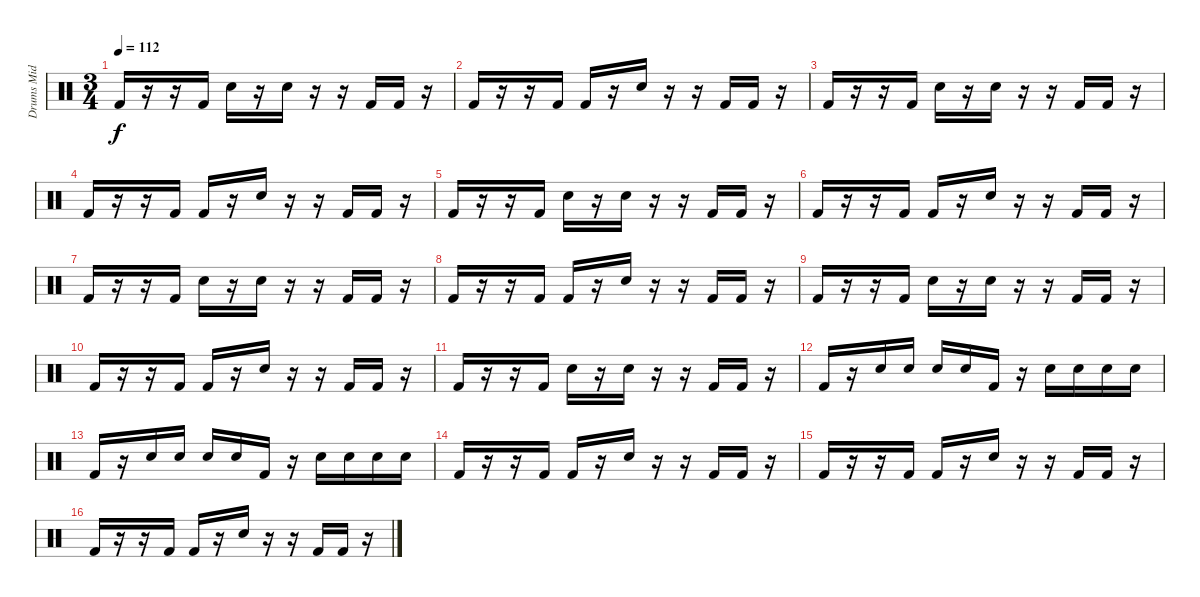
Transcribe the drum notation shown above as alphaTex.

\track ("Drums Mid" "Drums Mid") {instrument percussion}
\staff {score}
\articulation defaults
\ts (3 4)
\tempo 112
\clef neutral
\ks c "Kick (hit) 2".16{dy f}
r.16 r.16 "Kick (hit) 2".16 "Snare (hit) 2".16 r.16 "Snare (hit) 2".16 r.16 r.16 "Kick (hit) 2".16 "Kick (hit) 2".16 r.16 |
"Kick (hit) 2".16 r.16 r.16 "Kick (hit) 2".16 "Kick (hit) 2".16 r.16 "Snare (hit) 2".16 r.16 r.16 "Kick (hit) 2".16 "Kick (hit) 2".16 r.16 |
"Kick (hit) 2".16 r.16 r.16 "Kick (hit) 2".16 "Snare (hit) 2".16 r.16 "Snare (hit) 2".16 r.16 r.16 "Kick (hit) 2".16 "Kick (hit) 2".16 r.16 |
"Kick (hit) 2".16 r.16 r.16 "Kick (hit) 2".16 "Kick (hit) 2".16 r.16 "Snare (hit) 2".16 r.16 r.16 "Kick (hit) 2".16 "Kick (hit) 2".16 r.16 |
"Kick (hit) 2".16 r.16 r.16 "Kick (hit) 2".16 "Snare (hit) 2".16 r.16 "Snare (hit) 2".16 r.16 r.16 "Kick (hit) 2".16 "Kick (hit) 2".16 r.16 |
"Kick (hit) 2".16 r.16 r.16 "Kick (hit) 2".16 "Kick (hit) 2".16 r.16 "Snare (hit) 2".16 r.16 r.16 "Kick (hit) 2".16 "Kick (hit) 2".16 r.16 |
"Kick (hit) 2".16 r.16 r.16 "Kick (hit) 2".16 "Snare (hit) 2".16 r.16 "Snare (hit) 2".16 r.16 r.16 "Kick (hit) 2".16 "Kick (hit) 2".16 r.16 |
"Kick (hit) 2".16 r.16 r.16 "Kick (hit) 2".16 "Kick (hit) 2".16 r.16 "Snare (hit) 2".16 r.16 r.16 "Kick (hit) 2".16 "Kick (hit) 2".16 r.16 |
"Kick (hit) 2".16 r.16 r.16 "Kick (hit) 2".16 "Snare (hit) 2".16 r.16 "Snare (hit) 2".16 r.16 r.16 "Kick (hit) 2".16 "Kick (hit) 2".16 r.16 |
"Kick (hit) 2".16 r.16 r.16 "Kick (hit) 2".16 "Kick (hit) 2".16 r.16 "Snare (hit) 2".16 r.16 r.16 "Kick (hit) 2".16 "Kick (hit) 2".16 r.16 |
"Kick (hit) 2".16 r.16 r.16 "Kick (hit) 2".16 "Snare (hit) 2".16 r.16 "Snare (hit) 2".16 r.16 r.16 "Kick (hit) 2".16 "Kick (hit) 2".16 r.16 |
"Kick (hit) 2".16 r.16 "Snare (hit) 2".16 "Snare (hit) 2".16 "Snare (hit) 2".16 "Snare (hit) 2".16 "Kick (hit) 2".16 r.16 "Snare (hit) 2".16 "Snare (hit) 2".16 "Snare (hit) 2".16 "Snare (hit) 2".16 |
"Kick (hit) 2".16 r.16 "Snare (hit) 2".16 "Snare (hit) 2".16 "Snare (hit) 2".16 "Snare (hit) 2".16 "Kick (hit) 2".16 r.16 "Snare (hit) 2".16 "Snare (hit) 2".16 "Snare (hit) 2".16 "Snare (hit) 2".16 |
"Kick (hit) 2".16 r.16 r.16 "Kick (hit) 2".16 "Kick (hit) 2".16 r.16 "Snare (hit) 2".16 r.16 r.16 "Kick (hit) 2".16 "Kick (hit) 2".16 r.16 |
"Kick (hit) 2".16 r.16 r.16 "Kick (hit) 2".16 "Kick (hit) 2".16 r.16 "Snare (hit) 2".16 r.16 r.16 "Kick (hit) 2".16 "Kick (hit) 2".16 r.16 |
"Kick (hit) 2".16 r.16 r.16 "Kick (hit) 2".16 "Kick (hit) 2".16 r.16 "Snare (hit) 2".16 r.16 r.16 "Kick (hit) 2".16 "Kick (hit) 2".16 r.16
